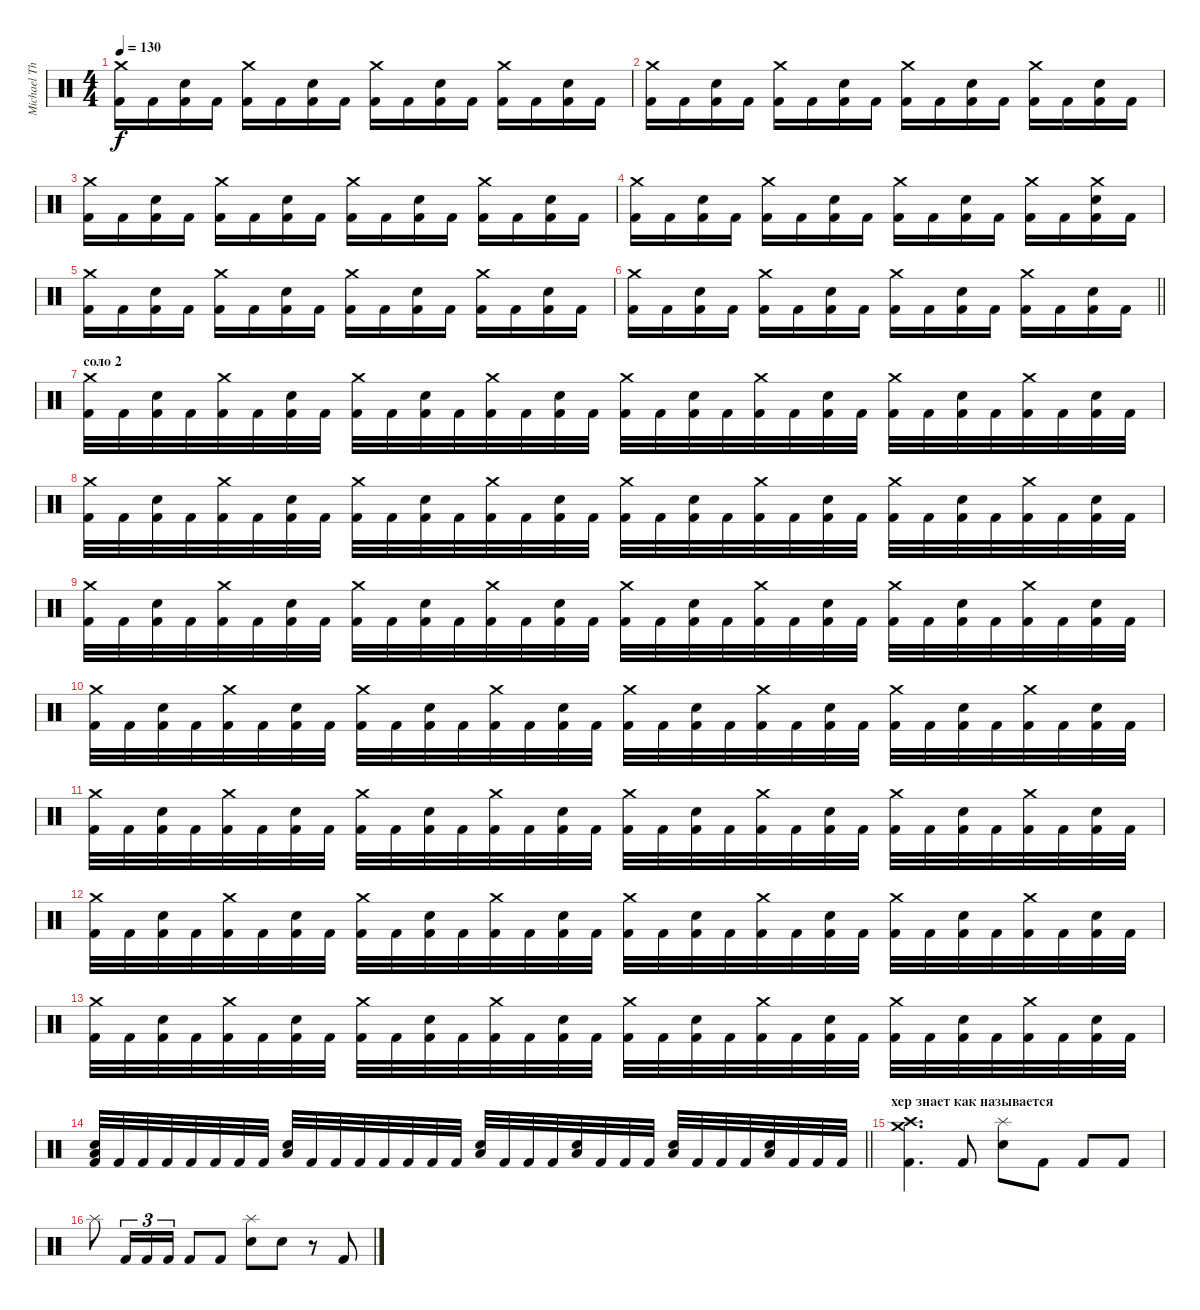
\track ("Michael Thomas" "Michael Th") {instrument percussion}
\staff {score}
\articulation defaults
\ts (4 4)
\tempo 130
\clef neutral
\ks c
("Crash medium (hit)" "Kick (hit) 2").16{dy f} "Kick (hit) 2".16 ("Electric Snare (hit)" "Kick (hit) 2").16 "Kick (hit) 2".16 ("Crash medium (hit)" "Kick (hit) 2").16 "Kick (hit) 2".16 ("Electric Snare (hit)" "Kick (hit) 2").16 "Kick (hit) 2".16 ("Crash medium (hit)" "Kick (hit) 2").16 "Kick (hit) 2".16 ("Electric Snare (hit)" "Kick (hit) 2").16 "Kick (hit) 2".16 ("Crash medium (hit)" "Kick (hit) 2").16 "Kick (hit) 2".16 ("Electric Snare (hit)" "Kick (hit) 2").16 "Kick (hit) 2".16 |
("Crash medium (hit)" "Kick (hit) 2").16 "Kick (hit) 2".16 ("Electric Snare (hit)" "Kick (hit) 2").16 "Kick (hit) 2".16 ("Crash medium (hit)" "Kick (hit) 2").16 "Kick (hit) 2".16 ("Electric Snare (hit)" "Kick (hit) 2").16 "Kick (hit) 2".16 ("Crash medium (hit)" "Kick (hit) 2").16 "Kick (hit) 2".16 ("Electric Snare (hit)" "Kick (hit) 2").16 "Kick (hit) 2".16 ("Crash medium (hit)" "Kick (hit) 2").16 "Kick (hit) 2".16 ("Electric Snare (hit)" "Kick (hit) 2").16 "Kick (hit) 2".16 |
("Crash medium (hit)" "Kick (hit) 2").16 "Kick (hit) 2".16 ("Electric Snare (hit)" "Kick (hit) 2").16 "Kick (hit) 2".16 ("Crash medium (hit)" "Kick (hit) 2").16 "Kick (hit) 2".16 ("Electric Snare (hit)" "Kick (hit) 2").16 "Kick (hit) 2".16 ("Crash medium (hit)" "Kick (hit) 2").16 "Kick (hit) 2".16 ("Electric Snare (hit)" "Kick (hit) 2").16 "Kick (hit) 2".16 ("Crash medium (hit)" "Kick (hit) 2").16 "Kick (hit) 2".16 ("Electric Snare (hit)" "Kick (hit) 2").16 "Kick (hit) 2".16 |
("Crash medium (hit)" "Kick (hit) 2").16 "Kick (hit) 2".16 ("Electric Snare (hit)" "Kick (hit) 2").16 "Kick (hit) 2".16 ("Crash medium (hit)" "Kick (hit) 2").16 "Kick (hit) 2".16 ("Electric Snare (hit)" "Kick (hit) 2").16 "Kick (hit) 2".16 ("Crash medium (hit)" "Kick (hit) 2").16 "Kick (hit) 2".16 ("Electric Snare (hit)" "Kick (hit) 2").16 "Kick (hit) 2".16 ("Crash medium (hit)" "Kick (hit) 2").16 "Kick (hit) 2".16 ("Crash medium (hit)" "Electric Snare (hit)" "Kick (hit) 2").16 "Kick (hit) 2".16 |
("Crash medium (hit)" "Kick (hit) 2").16 "Kick (hit) 2".16 ("Electric Snare (hit)" "Kick (hit) 2").16 "Kick (hit) 2".16 ("Crash medium (hit)" "Kick (hit) 2").16 "Kick (hit) 2".16 ("Electric Snare (hit)" "Kick (hit) 2").16 "Kick (hit) 2".16 ("Crash medium (hit)" "Kick (hit) 2").16 "Kick (hit) 2".16 ("Electric Snare (hit)" "Kick (hit) 2").16 "Kick (hit) 2".16 ("Crash medium (hit)" "Kick (hit) 2").16 "Kick (hit) 2".16 ("Electric Snare (hit)" "Kick (hit) 2").16 "Kick (hit) 2".16 |
\barLineRight lightlight
("Crash medium (hit)" "Kick (hit) 2").16 "Kick (hit) 2".16 ("Electric Snare (hit)" "Kick (hit) 2").16 "Kick (hit) 2".16 ("Crash medium (hit)" "Kick (hit) 2").16 "Kick (hit) 2".16 ("Electric Snare (hit)" "Kick (hit) 2").16 "Kick (hit) 2".16 ("Crash medium (hit)" "Kick (hit) 2").16 "Kick (hit) 2".16 ("Electric Snare (hit)" "Kick (hit) 2").16 "Kick (hit) 2".16 ("Crash medium (hit)" "Kick (hit) 2").16 "Kick (hit) 2".16 ("Electric Snare (hit)" "Kick (hit) 2").16 "Kick (hit) 2".16 |
\section ("" "соло 2")
("Crash medium (hit)" "Kick (hit) 2").32 "Kick (hit) 2".32 ("Electric Snare (hit)" "Kick (hit) 2").32 "Kick (hit) 2".32 ("Crash medium (hit)" "Kick (hit) 2").32 "Kick (hit) 2".32 ("Electric Snare (hit)" "Kick (hit) 2").32 "Kick (hit) 2".32 ("Crash medium (hit)" "Kick (hit) 2").32 "Kick (hit) 2".32 ("Electric Snare (hit)" "Kick (hit) 2").32 "Kick (hit) 2".32 ("Crash medium (hit)" "Kick (hit) 2").32 "Kick (hit) 2".32 ("Electric Snare (hit)" "Kick (hit) 2").32 "Kick (hit) 2".32 ("Crash medium (hit)" "Kick (hit) 2").32 "Kick (hit) 2".32 ("Electric Snare (hit)" "Kick (hit) 2").32 "Kick (hit) 2".32 ("Crash medium (hit)" "Kick (hit) 2").32 "Kick (hit) 2".32 ("Electric Snare (hit)" "Kick (hit) 2").32 "Kick (hit) 2".32 ("Crash medium (hit)" "Kick (hit) 2").32 "Kick (hit) 2".32 ("Electric Snare (hit)" "Kick (hit) 2").32 "Kick (hit) 2".32 ("Crash medium (hit)" "Kick (hit) 2").32 "Kick (hit) 2".32 ("Electric Snare (hit)" "Kick (hit) 2").32 "Kick (hit) 2".32 |
("Crash medium (hit)" "Kick (hit) 2").32 "Kick (hit) 2".32 ("Electric Snare (hit)" "Kick (hit) 2").32 "Kick (hit) 2".32 ("Crash medium (hit)" "Kick (hit) 2").32 "Kick (hit) 2".32 ("Electric Snare (hit)" "Kick (hit) 2").32 "Kick (hit) 2".32 ("Crash medium (hit)" "Kick (hit) 2").32 "Kick (hit) 2".32 ("Electric Snare (hit)" "Kick (hit) 2").32 "Kick (hit) 2".32 ("Crash medium (hit)" "Kick (hit) 2").32 "Kick (hit) 2".32 ("Electric Snare (hit)" "Kick (hit) 2").32 "Kick (hit) 2".32 ("Crash medium (hit)" "Kick (hit) 2").32 "Kick (hit) 2".32 ("Electric Snare (hit)" "Kick (hit) 2").32 "Kick (hit) 2".32 ("Crash medium (hit)" "Kick (hit) 2").32 "Kick (hit) 2".32 ("Electric Snare (hit)" "Kick (hit) 2").32 "Kick (hit) 2".32 ("Crash medium (hit)" "Kick (hit) 2").32 "Kick (hit) 2".32 ("Electric Snare (hit)" "Kick (hit) 2").32 "Kick (hit) 2".32 ("Crash medium (hit)" "Kick (hit) 2").32 "Kick (hit) 2".32 ("Electric Snare (hit)" "Kick (hit) 2").32 "Kick (hit) 2".32 |
("Crash medium (hit)" "Kick (hit) 2").32 "Kick (hit) 2".32 ("Electric Snare (hit)" "Kick (hit) 2").32 "Kick (hit) 2".32 ("Crash medium (hit)" "Kick (hit) 2").32 "Kick (hit) 2".32 ("Electric Snare (hit)" "Kick (hit) 2").32 "Kick (hit) 2".32 ("Crash medium (hit)" "Kick (hit) 2").32 "Kick (hit) 2".32 ("Electric Snare (hit)" "Kick (hit) 2").32 "Kick (hit) 2".32 ("Crash medium (hit)" "Kick (hit) 2").32 "Kick (hit) 2".32 ("Electric Snare (hit)" "Kick (hit) 2").32 "Kick (hit) 2".32 ("Crash medium (hit)" "Kick (hit) 2").32 "Kick (hit) 2".32 ("Electric Snare (hit)" "Kick (hit) 2").32 "Kick (hit) 2".32 ("Crash medium (hit)" "Kick (hit) 2").32 "Kick (hit) 2".32 ("Electric Snare (hit)" "Kick (hit) 2").32 "Kick (hit) 2".32 ("Crash medium (hit)" "Kick (hit) 2").32 "Kick (hit) 2".32 ("Electric Snare (hit)" "Kick (hit) 2").32 "Kick (hit) 2".32 ("Crash medium (hit)" "Kick (hit) 2").32 "Kick (hit) 2".32 ("Electric Snare (hit)" "Kick (hit) 2").32 "Kick (hit) 2".32 |
("Crash medium (hit)" "Kick (hit) 2").32 "Kick (hit) 2".32 ("Electric Snare (hit)" "Kick (hit) 2").32 "Kick (hit) 2".32 ("Crash medium (hit)" "Kick (hit) 2").32 "Kick (hit) 2".32 ("Electric Snare (hit)" "Kick (hit) 2").32 "Kick (hit) 2".32 ("Crash medium (hit)" "Kick (hit) 2").32 "Kick (hit) 2".32 ("Electric Snare (hit)" "Kick (hit) 2").32 "Kick (hit) 2".32 ("Crash medium (hit)" "Kick (hit) 2").32 "Kick (hit) 2".32 ("Electric Snare (hit)" "Kick (hit) 2").32 "Kick (hit) 2".32 ("Crash medium (hit)" "Kick (hit) 2").32 "Kick (hit) 2".32 ("Electric Snare (hit)" "Kick (hit) 2").32 "Kick (hit) 2".32 ("Crash medium (hit)" "Kick (hit) 2").32 "Kick (hit) 2".32 ("Electric Snare (hit)" "Kick (hit) 2").32 "Kick (hit) 2".32 ("Crash medium (hit)" "Kick (hit) 2").32 "Kick (hit) 2".32 ("Electric Snare (hit)" "Kick (hit) 2").32 "Kick (hit) 2".32 ("Crash medium (hit)" "Kick (hit) 2").32 "Kick (hit) 2".32 ("Electric Snare (hit)" "Kick (hit) 2").32 "Kick (hit) 2".32 |
("Crash medium (hit)" "Kick (hit) 2").32 "Kick (hit) 2".32 ("Electric Snare (hit)" "Kick (hit) 2").32 "Kick (hit) 2".32 ("Crash medium (hit)" "Kick (hit) 2").32 "Kick (hit) 2".32 ("Electric Snare (hit)" "Kick (hit) 2").32 "Kick (hit) 2".32 ("Crash medium (hit)" "Kick (hit) 2").32 "Kick (hit) 2".32 ("Electric Snare (hit)" "Kick (hit) 2").32 "Kick (hit) 2".32 ("Crash medium (hit)" "Kick (hit) 2").32 "Kick (hit) 2".32 ("Electric Snare (hit)" "Kick (hit) 2").32 "Kick (hit) 2".32 ("Crash medium (hit)" "Kick (hit) 2").32 "Kick (hit) 2".32 ("Electric Snare (hit)" "Kick (hit) 2").32 "Kick (hit) 2".32 ("Crash medium (hit)" "Kick (hit) 2").32 "Kick (hit) 2".32 ("Electric Snare (hit)" "Kick (hit) 2").32 "Kick (hit) 2".32 ("Crash medium (hit)" "Kick (hit) 2").32 "Kick (hit) 2".32 ("Electric Snare (hit)" "Kick (hit) 2").32 "Kick (hit) 2".32 ("Crash medium (hit)" "Kick (hit) 2").32 "Kick (hit) 2".32 ("Electric Snare (hit)" "Kick (hit) 2").32 "Kick (hit) 2".32 |
("Crash medium (hit)" "Kick (hit) 2").32 "Kick (hit) 2".32 ("Electric Snare (hit)" "Kick (hit) 2").32 "Kick (hit) 2".32 ("Crash medium (hit)" "Kick (hit) 2").32 "Kick (hit) 2".32 ("Electric Snare (hit)" "Kick (hit) 2").32 "Kick (hit) 2".32 ("Crash medium (hit)" "Kick (hit) 2").32 "Kick (hit) 2".32 ("Electric Snare (hit)" "Kick (hit) 2").32 "Kick (hit) 2".32 ("Crash medium (hit)" "Kick (hit) 2").32 "Kick (hit) 2".32 ("Electric Snare (hit)" "Kick (hit) 2").32 "Kick (hit) 2".32 ("Crash medium (hit)" "Kick (hit) 2").32 "Kick (hit) 2".32 ("Electric Snare (hit)" "Kick (hit) 2").32 "Kick (hit) 2".32 ("Crash medium (hit)" "Kick (hit) 2").32 "Kick (hit) 2".32 ("Electric Snare (hit)" "Kick (hit) 2").32 "Kick (hit) 2".32 ("Crash medium (hit)" "Kick (hit) 2").32 "Kick (hit) 2".32 ("Electric Snare (hit)" "Kick (hit) 2").32 "Kick (hit) 2".32 ("Crash medium (hit)" "Kick (hit) 2").32 "Kick (hit) 2".32 ("Electric Snare (hit)" "Kick (hit) 2").32 "Kick (hit) 2".32 |
("Crash medium (hit)" "Kick (hit) 2").32 "Kick (hit) 2".32 ("Electric Snare (hit)" "Kick (hit) 2").32 "Kick (hit) 2".32 ("Crash medium (hit)" "Kick (hit) 2").32 "Kick (hit) 2".32 ("Electric Snare (hit)" "Kick (hit) 2").32 "Kick (hit) 2".32 ("Crash medium (hit)" "Kick (hit) 2").32 "Kick (hit) 2".32 ("Electric Snare (hit)" "Kick (hit) 2").32 "Kick (hit) 2".32 ("Crash medium (hit)" "Kick (hit) 2").32 "Kick (hit) 2".32 ("Electric Snare (hit)" "Kick (hit) 2").32 "Kick (hit) 2".32 ("Crash medium (hit)" "Kick (hit) 2").32 "Kick (hit) 2".32 ("Electric Snare (hit)" "Kick (hit) 2").32 "Kick (hit) 2".32 ("Crash medium (hit)" "Kick (hit) 2").32 "Kick (hit) 2".32 ("Electric Snare (hit)" "Kick (hit) 2").32 "Kick (hit) 2".32 ("Crash medium (hit)" "Kick (hit) 2").32 "Kick (hit) 2".32 ("Electric Snare (hit)" "Kick (hit) 2").32 "Kick (hit) 2".32 ("Crash medium (hit)" "Kick (hit) 2").32 "Kick (hit) 2".32 ("Electric Snare (hit)" "Kick (hit) 2").32 "Kick (hit) 2".32 |
\barLineRight lightlight
("Low Floor Tom (hit)" "Electric Snare (hit)" "Kick (hit) 2").32 "Kick (hit) 2".32 "Kick (hit) 2".32 "Kick (hit) 2".32 "Kick (hit) 2".32 "Kick (hit) 2".32 "Kick (hit) 2".32 "Kick (hit) 2".32 ("Low Floor Tom (hit)" "Electric Snare (hit)").32 "Kick (hit) 2".32 "Kick (hit) 2".32 "Kick (hit) 2".32 "Kick (hit) 2".32 "Kick (hit) 2".32 "Kick (hit) 2".32 "Kick (hit) 2".32 ("Low Floor Tom (hit)" "Electric Snare (hit)").32 "Kick (hit) 2".32 "Kick (hit) 2".32 "Kick (hit) 2".32 ("Low Floor Tom (hit)" "Electric Snare (hit)").32 "Kick (hit) 2".32 "Kick (hit) 2".32 "Kick (hit) 2".32 ("Low Floor Tom (hit)" "Electric Snare (hit)").32 "Kick (hit) 2".32 "Kick (hit) 2".32 "Kick (hit) 2".32 ("Low Floor Tom (hit)" "Electric Snare (hit)").32 "Kick (hit) 2".32 "Kick (hit) 2".32 "Kick (hit) 2".32 |
\section ("" "хер знает как называется")
("Crash medium (hit)" "Crash high (hit)" "Kick (hit) 2").4{d} "Kick (hit) 2".8 ("Splash (hit)" "Electric Snare (hit)").8 "Kick (hit) 2".8 "Kick (hit) 2".8 "Kick (hit) 2".8 |
"Splash (hit)".8 "Kick (hit) 2".16{tu (3 2)} "Kick (hit) 2".16{tu (3 2)} "Kick (hit) 2".16{tu (3 2)} "Kick (hit) 2".8 "Kick (hit) 2".8 ("Splash (hit)" "Electric Snare (hit)").8 "Electric Snare (hit)".8 r.8 "Kick (hit) 2".8
